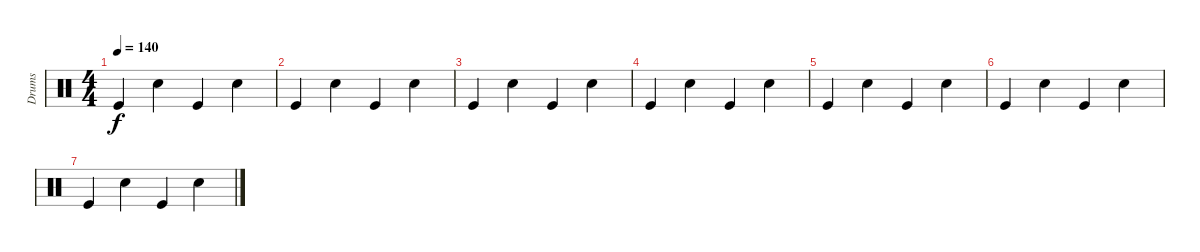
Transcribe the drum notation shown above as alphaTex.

\track ("Drums" "Drums") {instrument percussion}
\staff {score}
\articulation defaults
\ts (4 4)
\tempo 140
\clef neutral
\ks c "Kick (hit)".4{dy f volume 5} "Electric Snare (hit)".4 "Kick (hit)".4 "Electric Snare (hit)".4
|
"Kick (hit)".4 "Electric Snare (hit)".4 "Kick (hit)".4 "Electric Snare (hit)".4 |
"Kick (hit)".4 "Electric Snare (hit)".4 "Kick (hit)".4 "Electric Snare (hit)".4 |
"Kick (hit)".4{volume 0} "Electric Snare (hit)".4 "Kick (hit)".4 "Electric Snare (hit)".4 |
"Kick (hit)".4 "Electric Snare (hit)".4 "Kick (hit)".4 "Electric Snare (hit)".4 |
"Kick (hit)".4 "Electric Snare (hit)".4 "Kick (hit)".4 "Electric Snare (hit)".4 |
"Kick (hit)".4 "Electric Snare (hit)".4 "Kick (hit)".4 "Electric Snare (hit)".4
